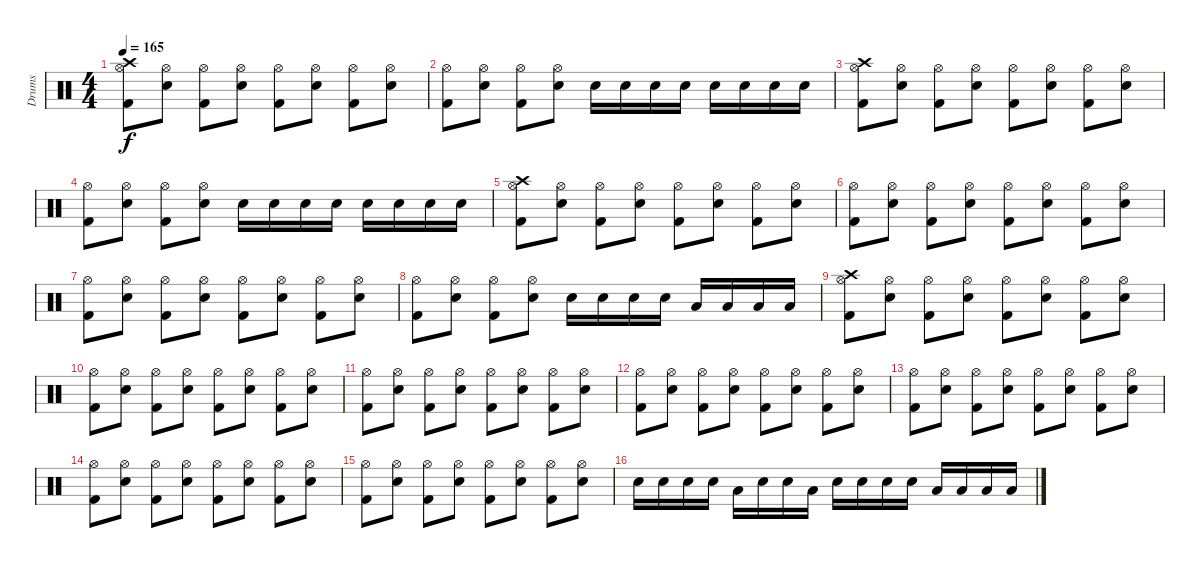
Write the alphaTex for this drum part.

\track ("Drums" "Drums") {instrument percussion}
\staff {score}
\articulation defaults
\ts (4 4)
\tempo 165
\clef neutral
\ks c
("Crash high (hit)" "Hi-Hat (open)" "Kick (hit) 2").8{dy f} ("Hi-Hat (open)" "Snare (hit) 2").8 ("Hi-Hat (open)" "Kick (hit) 2").8 ("Hi-Hat (open)" "Snare (hit) 2").8 ("Hi-Hat (open)" "Kick (hit) 2").8 ("Hi-Hat (open)" "Snare (hit) 2").8 ("Hi-Hat (open)" "Kick (hit) 2").8 ("Hi-Hat (open)" "Snare (hit) 2").8 |
("Hi-Hat (open)" "Kick (hit) 2").8 ("Hi-Hat (open)" "Snare (hit) 2").8 ("Hi-Hat (open)" "Kick (hit) 2").8 ("Hi-Hat (open)" "Snare (hit) 2").8 "Snare (hit) 2".16 "Snare (hit) 2".16 "Snare (hit) 2".16 "Snare (hit) 2".16 "Snare (hit) 2".16 "Snare (hit) 2".16 "Snare (hit) 2".16 "Snare (hit) 2".16 |
("Crash high (hit)" "Hi-Hat (open)" "Kick (hit) 2").8 ("Hi-Hat (open)" "Snare (hit) 2").8 ("Hi-Hat (open)" "Kick (hit) 2").8 ("Hi-Hat (open)" "Snare (hit) 2").8 ("Hi-Hat (open)" "Kick (hit) 2").8 ("Hi-Hat (open)" "Snare (hit) 2").8 ("Hi-Hat (open)" "Kick (hit) 2").8 ("Hi-Hat (open)" "Snare (hit) 2").8 |
("Hi-Hat (open)" "Kick (hit) 2").8 ("Hi-Hat (open)" "Snare (hit) 2").8 ("Hi-Hat (open)" "Kick (hit) 2").8 ("Hi-Hat (open)" "Snare (hit) 2").8 "Snare (hit) 2".16 "Snare (hit) 2".16 "Snare (hit) 2".16 "Snare (hit) 2".16 "Snare (hit) 2".16 "Snare (hit) 2".16 "Snare (hit) 2".16 "Snare (hit) 2".16 |
("Crash high (hit)" "Hi-Hat (open)" "Kick (hit) 2").8 ("Hi-Hat (open)" "Snare (hit) 2").8 ("Hi-Hat (open)" "Kick (hit) 2").8 ("Hi-Hat (open)" "Snare (hit) 2").8 ("Hi-Hat (open)" "Kick (hit) 2").8 ("Hi-Hat (open)" "Snare (hit) 2").8 ("Hi-Hat (open)" "Kick (hit) 2").8 ("Hi-Hat (open)" "Snare (hit) 2").8 |
("Hi-Hat (open)" "Kick (hit) 2").8 ("Hi-Hat (open)" "Snare (hit) 2").8 ("Hi-Hat (open)" "Kick (hit) 2").8 ("Hi-Hat (open)" "Snare (hit) 2").8 ("Hi-Hat (open)" "Kick (hit) 2").8 ("Hi-Hat (open)" "Snare (hit) 2").8 ("Hi-Hat (open)" "Kick (hit) 2").8 ("Hi-Hat (open)" "Snare (hit) 2").8 |
("Hi-Hat (open)" "Kick (hit) 2").8 ("Hi-Hat (open)" "Snare (hit) 2").8 ("Hi-Hat (open)" "Kick (hit) 2").8 ("Hi-Hat (open)" "Snare (hit) 2").8 ("Hi-Hat (open)" "Kick (hit) 2").8 ("Hi-Hat (open)" "Snare (hit) 2").8 ("Hi-Hat (open)" "Kick (hit) 2").8 ("Hi-Hat (open)" "Snare (hit) 2").8 |
("Hi-Hat (open)" "Kick (hit) 2").8 ("Hi-Hat (open)" "Snare (hit) 2").8 ("Hi-Hat (open)" "Kick (hit) 2").8 ("Hi-Hat (open)" "Snare (hit) 2").8 "Snare (hit) 2".16 "Snare (hit) 2".16 "Snare (hit) 2".16 "Snare (hit) 2".16 "Low Floor Tom (hit)".16 "Low Floor Tom (hit)".16 "Low Floor Tom (hit)".16 "Low Floor Tom (hit)".16 |
("Crash high (hit)" "Hi-Hat (open)" "Kick (hit) 2").8 ("Hi-Hat (open)" "Snare (hit) 2").8 ("Hi-Hat (open)" "Kick (hit) 2").8 ("Hi-Hat (open)" "Snare (hit) 2").8 ("Hi-Hat (open)" "Kick (hit) 2").8 ("Hi-Hat (open)" "Snare (hit) 2").8 ("Hi-Hat (open)" "Kick (hit) 2").8 ("Hi-Hat (open)" "Snare (hit) 2").8 |
("Hi-Hat (open)" "Kick (hit) 2").8 ("Hi-Hat (open)" "Snare (hit) 2").8 ("Hi-Hat (open)" "Kick (hit) 2").8 ("Hi-Hat (open)" "Snare (hit) 2").8 ("Hi-Hat (open)" "Kick (hit) 2").8 ("Hi-Hat (open)" "Snare (hit) 2").8 ("Hi-Hat (open)" "Kick (hit) 2").8 ("Hi-Hat (open)" "Snare (hit) 2").8 |
("Hi-Hat (open)" "Kick (hit) 2").8 ("Hi-Hat (open)" "Snare (hit) 2").8 ("Hi-Hat (open)" "Kick (hit) 2").8 ("Hi-Hat (open)" "Snare (hit) 2").8 ("Hi-Hat (open)" "Kick (hit) 2").8 ("Hi-Hat (open)" "Snare (hit) 2").8 ("Hi-Hat (open)" "Kick (hit) 2").8 ("Hi-Hat (open)" "Snare (hit) 2").8 |
("Hi-Hat (open)" "Kick (hit) 2").8 ("Hi-Hat (open)" "Snare (hit) 2").8 ("Hi-Hat (open)" "Kick (hit) 2").8 ("Hi-Hat (open)" "Snare (hit) 2").8 ("Hi-Hat (open)" "Kick (hit) 2").8 ("Hi-Hat (open)" "Snare (hit) 2").8 ("Hi-Hat (open)" "Kick (hit) 2").8 ("Hi-Hat (open)" "Snare (hit) 2").8 |
("Hi-Hat (open)" "Kick (hit) 2").8 ("Hi-Hat (open)" "Snare (hit) 2").8 ("Hi-Hat (open)" "Kick (hit) 2").8 ("Hi-Hat (open)" "Snare (hit) 2").8 ("Hi-Hat (open)" "Kick (hit) 2").8 ("Hi-Hat (open)" "Snare (hit) 2").8 ("Hi-Hat (open)" "Kick (hit) 2").8 ("Hi-Hat (open)" "Snare (hit) 2").8 |
("Hi-Hat (open)" "Kick (hit) 2").8 ("Hi-Hat (open)" "Snare (hit) 2").8 ("Hi-Hat (open)" "Kick (hit) 2").8 ("Hi-Hat (open)" "Snare (hit) 2").8 ("Hi-Hat (open)" "Kick (hit) 2").8 ("Hi-Hat (open)" "Snare (hit) 2").8 ("Hi-Hat (open)" "Kick (hit) 2").8 ("Hi-Hat (open)" "Snare (hit) 2").8 |
("Hi-Hat (open)" "Kick (hit) 2").8 ("Hi-Hat (open)" "Snare (hit) 2").8 ("Hi-Hat (open)" "Kick (hit) 2").8 ("Hi-Hat (open)" "Snare (hit) 2").8 ("Hi-Hat (open)" "Kick (hit) 2").8 ("Hi-Hat (open)" "Snare (hit) 2").8 ("Hi-Hat (open)" "Kick (hit) 2").8 ("Hi-Hat (open)" "Snare (hit) 2").8 |
"Snare (hit) 2".16 "Snare (hit) 2".16 "Snare (hit) 2".16 "Snare (hit) 2".16 "Low Floor Tom (hit)".16 "Snare (hit) 2".16 "Snare (hit) 2".16 "Low Floor Tom (hit)".16 "Snare (hit) 2".16 "Snare (hit) 2".16 "Snare (hit) 2".16 "Snare (hit) 2".16 "Low Tom (hit)".16 "Low Tom (hit)".16 "Low Floor Tom (hit)".16 "Low Floor Tom (hit)".16
